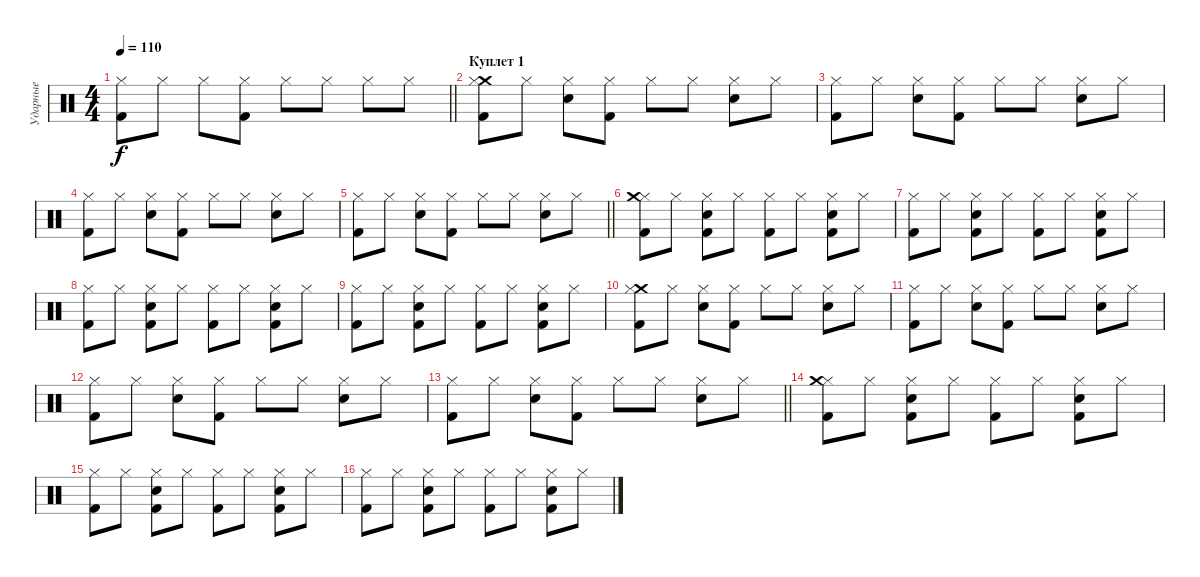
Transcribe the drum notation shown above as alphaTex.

\track ("Ударные" "Ударные") {instrument percussion}
\staff {score}
\articulation defaults
\ts (4 4)
\tempo 110
\clef neutral
\barLineRight lightlight
\ks c
("Hi-Hat (closed)" "Kick (hit) 2").8{dy f} "Hi-Hat (closed)".8 "Hi-Hat (closed)".8 ("Hi-Hat (closed)" "Kick (hit) 2").8 "Hi-Hat (closed)".8 "Hi-Hat (closed)".8 "Hi-Hat (closed)".8 "Hi-Hat (closed)".8 |
\section ("" "Куплет 1")
("Crash medium (hit)" "Hi-Hat (closed)" "Kick (hit) 2").8 "Hi-Hat (closed)".8 ("Electric Snare (hit)" "Hi-Hat (closed)").8 ("Hi-Hat (closed)" "Kick (hit) 2").8 "Hi-Hat (closed)".8 "Hi-Hat (closed)".8 ("Electric Snare (hit)" "Hi-Hat (closed)").8 "Hi-Hat (closed)".8 |
("Hi-Hat (closed)" "Kick (hit) 2").8 "Hi-Hat (closed)".8 ("Electric Snare (hit)" "Hi-Hat (closed)").8 ("Hi-Hat (closed)" "Kick (hit) 2").8 "Hi-Hat (closed)".8 "Hi-Hat (closed)".8 ("Electric Snare (hit)" "Hi-Hat (closed)").8 "Hi-Hat (closed)".8 |
("Hi-Hat (closed)" "Kick (hit) 2").8 "Hi-Hat (closed)".8 ("Electric Snare (hit)" "Hi-Hat (closed)").8 ("Hi-Hat (closed)" "Kick (hit) 2").8 "Hi-Hat (closed)".8 "Hi-Hat (closed)".8 ("Electric Snare (hit)" "Hi-Hat (closed)").8 "Hi-Hat (closed)".8 |
\barLineRight lightlight
("Hi-Hat (closed)" "Kick (hit) 2").8 "Hi-Hat (closed)".8 ("Electric Snare (hit)" "Hi-Hat (closed)").8 ("Hi-Hat (closed)" "Kick (hit) 2").8 "Hi-Hat (closed)".8 "Hi-Hat (closed)".8 ("Electric Snare (hit)" "Hi-Hat (closed)").8 "Hi-Hat (closed)".8 |
("Hi-Hat (closed)" "Kick (hit) 2" "Crash medium (hit)").8 "Hi-Hat (closed)".8 ("Hi-Hat (closed)" "Electric Snare (hit)" "Kick (hit) 2").8 "Hi-Hat (closed)".8 ("Hi-Hat (closed)" "Kick (hit) 2").8 "Hi-Hat (closed)".8 ("Hi-Hat (closed)" "Electric Snare (hit)" "Kick (hit) 2").8 "Hi-Hat (closed)".8 |
("Hi-Hat (closed)" "Kick (hit) 2").8 "Hi-Hat (closed)".8 ("Hi-Hat (closed)" "Electric Snare (hit)" "Kick (hit) 2").8 "Hi-Hat (closed)".8 ("Hi-Hat (closed)" "Kick (hit) 2").8 "Hi-Hat (closed)".8 ("Hi-Hat (closed)" "Electric Snare (hit)" "Kick (hit) 2").8 "Hi-Hat (closed)".8 |
("Hi-Hat (closed)" "Kick (hit) 2").8 "Hi-Hat (closed)".8 ("Hi-Hat (closed)" "Electric Snare (hit)" "Kick (hit) 2").8 "Hi-Hat (closed)".8 ("Hi-Hat (closed)" "Kick (hit) 2").8 "Hi-Hat (closed)".8 ("Hi-Hat (closed)" "Electric Snare (hit)" "Kick (hit) 2").8 "Hi-Hat (closed)".8 |
("Hi-Hat (closed)" "Kick (hit) 2").8 "Hi-Hat (closed)".8 ("Hi-Hat (closed)" "Electric Snare (hit)" "Kick (hit) 2").8 "Hi-Hat (closed)".8 ("Hi-Hat (closed)" "Kick (hit) 2").8 "Hi-Hat (closed)".8 ("Hi-Hat (closed)" "Electric Snare (hit)" "Kick (hit) 2").8 "Hi-Hat (closed)".8 |
("Crash medium (hit)" "Hi-Hat (closed)" "Kick (hit) 2").8 "Hi-Hat (closed)".8 ("Electric Snare (hit)" "Hi-Hat (closed)").8 ("Hi-Hat (closed)" "Kick (hit) 2").8 "Hi-Hat (closed)".8 "Hi-Hat (closed)".8 ("Electric Snare (hit)" "Hi-Hat (closed)").8 "Hi-Hat (closed)".8 |
("Hi-Hat (closed)" "Kick (hit) 2").8 "Hi-Hat (closed)".8 ("Electric Snare (hit)" "Hi-Hat (closed)").8 ("Hi-Hat (closed)" "Kick (hit) 2").8 "Hi-Hat (closed)".8 "Hi-Hat (closed)".8 ("Electric Snare (hit)" "Hi-Hat (closed)").8 "Hi-Hat (closed)".8 |
("Hi-Hat (closed)" "Kick (hit) 2").8 "Hi-Hat (closed)".8 ("Electric Snare (hit)" "Hi-Hat (closed)").8 ("Hi-Hat (closed)" "Kick (hit) 2").8 "Hi-Hat (closed)".8 "Hi-Hat (closed)".8 ("Electric Snare (hit)" "Hi-Hat (closed)").8 "Hi-Hat (closed)".8 |
\barLineRight lightlight
("Hi-Hat (closed)" "Kick (hit) 2").8 "Hi-Hat (closed)".8 ("Electric Snare (hit)" "Hi-Hat (closed)").8 ("Hi-Hat (closed)" "Kick (hit) 2").8 "Hi-Hat (closed)".8 "Hi-Hat (closed)".8 ("Electric Snare (hit)" "Hi-Hat (closed)").8 "Hi-Hat (closed)".8 |
("Hi-Hat (closed)" "Kick (hit) 2" "Crash medium (hit)").8 "Hi-Hat (closed)".8 ("Hi-Hat (closed)" "Electric Snare (hit)" "Kick (hit) 2").8 "Hi-Hat (closed)".8 ("Hi-Hat (closed)" "Kick (hit) 2").8 "Hi-Hat (closed)".8 ("Hi-Hat (closed)" "Electric Snare (hit)" "Kick (hit) 2").8 "Hi-Hat (closed)".8 |
("Hi-Hat (closed)" "Kick (hit) 2").8 "Hi-Hat (closed)".8 ("Hi-Hat (closed)" "Electric Snare (hit)" "Kick (hit) 2").8 "Hi-Hat (closed)".8 ("Hi-Hat (closed)" "Kick (hit) 2").8 "Hi-Hat (closed)".8 ("Hi-Hat (closed)" "Electric Snare (hit)" "Kick (hit) 2").8 "Hi-Hat (closed)".8 |
("Hi-Hat (closed)" "Kick (hit) 2").8 "Hi-Hat (closed)".8 ("Hi-Hat (closed)" "Electric Snare (hit)" "Kick (hit) 2").8 "Hi-Hat (closed)".8 ("Hi-Hat (closed)" "Kick (hit) 2").8 "Hi-Hat (closed)".8 ("Hi-Hat (closed)" "Electric Snare (hit)" "Kick (hit) 2").8 "Hi-Hat (closed)".8
